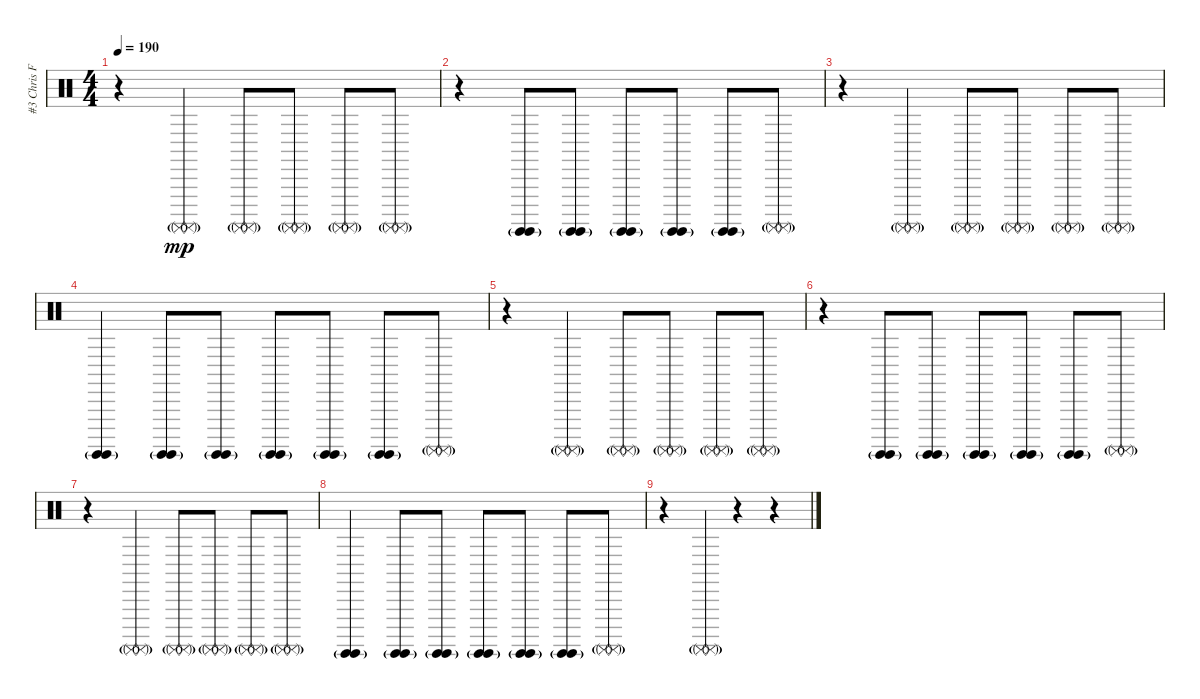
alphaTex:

\track ("#3 Chris Fehn" "#3 Chris F") {instrument percussion}
\staff {score}
\articulation defaults
\ts (4 4)
\tempo 190
\clef neutral
\ks c
r.4{dy mp} ("Surdo (mute)"{g} "Surdo (mute)"{g}).4 ("Surdo (mute)"{g} "Surdo (mute)"{g}).8 ("Surdo (mute)"{g} "Surdo (mute)"{g}).8 ("Surdo (mute)"{g} "Surdo (mute)"{g}).8 ("Surdo (mute)"{g} "Surdo (mute)"{g}).8 |
r.4 ("Surdo (hit)"{g} "Surdo (hit)"{g}).8 ("Surdo (hit)"{g} "Surdo (hit)"{g}).8 ("Surdo (hit)"{g} "Surdo (hit)"{g}).8 ("Surdo (hit)"{g} "Surdo (hit)"{g}).8 ("Surdo (hit)"{g} "Surdo (hit)"{g}).8 ("Surdo (mute)"{g} "Surdo (mute)"{g}).8 |
r.4 ("Surdo (mute)"{g} "Surdo (mute)"{g}).4 ("Surdo (mute)"{g} "Surdo (mute)"{g}).8 ("Surdo (mute)"{g} "Surdo (mute)"{g}).8 ("Surdo (mute)"{g} "Surdo (mute)"{g}).8 ("Surdo (mute)"{g} "Surdo (mute)"{g}).8 |
("Surdo (hit)"{g} "Surdo (hit)"{g}).4 ("Surdo (hit)"{g} "Surdo (hit)"{g}).8 ("Surdo (hit)"{g} "Surdo (hit)"{g}).8 ("Surdo (hit)"{g} "Surdo (hit)"{g}).8 ("Surdo (hit)"{g} "Surdo (hit)"{g}).8 ("Surdo (hit)"{g} "Surdo (hit)"{g}).8 ("Surdo (mute)"{g} "Surdo (mute)"{g}).8 |
r.4 ("Surdo (mute)"{g} "Surdo (mute)"{g}).4 ("Surdo (mute)"{g} "Surdo (mute)"{g}).8 ("Surdo (mute)"{g} "Surdo (mute)"{g}).8 ("Surdo (mute)"{g} "Surdo (mute)"{g}).8 ("Surdo (mute)"{g} "Surdo (mute)"{g}).8 |
r.4 ("Surdo (hit)"{g} "Surdo (hit)"{g}).8 ("Surdo (hit)"{g} "Surdo (hit)"{g}).8 ("Surdo (hit)"{g} "Surdo (hit)"{g}).8 ("Surdo (hit)"{g} "Surdo (hit)"{g}).8 ("Surdo (hit)"{g} "Surdo (hit)"{g}).8 ("Surdo (mute)"{g} "Surdo (mute)"{g}).8 |
r.4 ("Surdo (mute)"{g} "Surdo (mute)"{g}).4 ("Surdo (mute)"{g} "Surdo (mute)"{g}).8 ("Surdo (mute)"{g} "Surdo (mute)"{g}).8 ("Surdo (mute)"{g} "Surdo (mute)"{g}).8 ("Surdo (mute)"{g} "Surdo (mute)"{g}).8 |
("Surdo (hit)"{g} "Surdo (hit)"{g}).4 ("Surdo (hit)"{g} "Surdo (hit)"{g}).8 ("Surdo (hit)"{g} "Surdo (hit)"{g}).8 ("Surdo (hit)"{g} "Surdo (hit)"{g}).8 ("Surdo (hit)"{g} "Surdo (hit)"{g}).8 ("Surdo (hit)"{g} "Surdo (hit)"{g}).8 ("Surdo (mute)"{g} "Surdo (mute)"{g}).8 |
r.4 ("Surdo (mute)"{g} "Surdo (mute)"{g}).4 r.4 r.4
